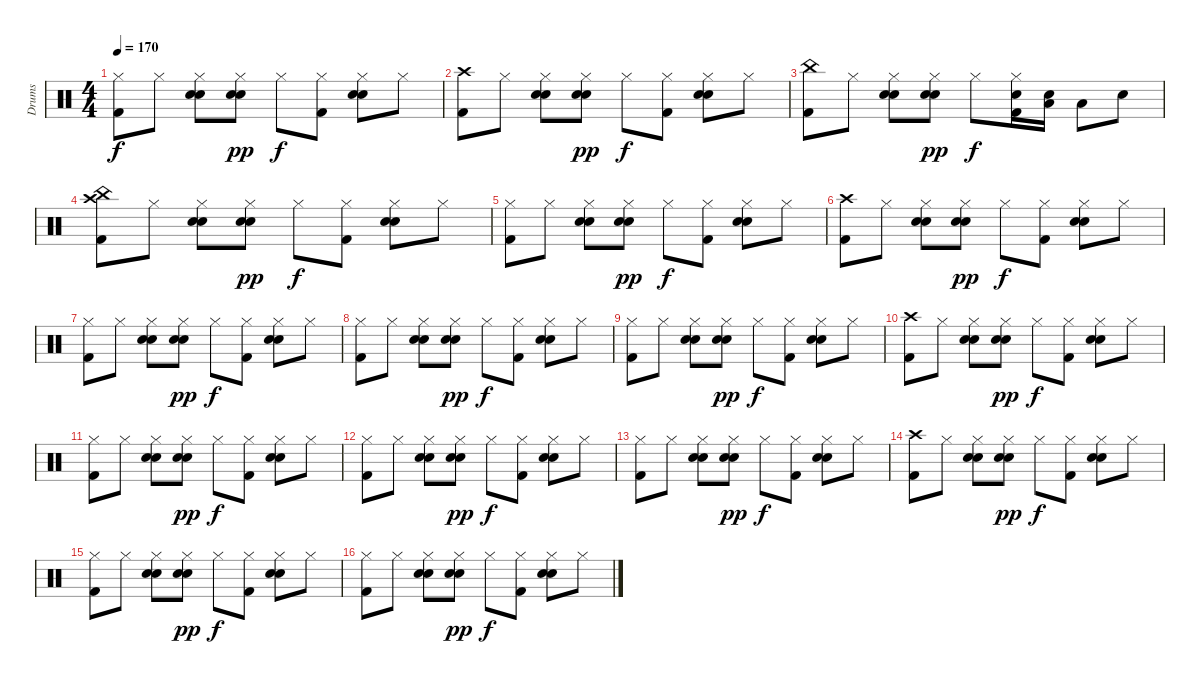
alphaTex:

\track ("Drums" "Drums") {instrument percussion}
\staff {score}
\articulation defaults
\ts (4 4)
\tempo 170
\clef neutral
\ks c
("Hi-Hat (closed)" "Kick (hit) 2").8{dy f} "Hi-Hat (closed)".8 ("Hi-Hat (closed)" "Electric Snare (hit)" "Snare (hit)").8 ("Hi-Hat (closed)" "Electric Snare (hit)" "Snare (hit)").8{dy pp} "Hi-Hat (closed)".8{dy f} ("Hi-Hat (closed)" "Kick (hit) 2").8 ("Hi-Hat (closed)" "Electric Snare (hit)" "Snare (hit)").8 "Hi-Hat (closed)".8 |
("Crash high (hit)" "Kick (hit) 2").8 "Hi-Hat (closed)".8 ("Hi-Hat (closed)" "Electric Snare (hit)" "Snare (hit)").8 ("Hi-Hat (closed)" "Electric Snare (hit)" "Snare (hit)").8{dy pp} "Hi-Hat (closed)".8{dy f} ("Hi-Hat (closed)" "Kick (hit) 2").8 ("Hi-Hat (closed)" "Electric Snare (hit)" "Snare (hit)").8 "Hi-Hat (closed)".8 |
("China (hit)" "Kick (hit) 2").8 "Hi-Hat (closed)".8 ("Hi-Hat (closed)" "Electric Snare (hit)" "Snare (hit)").8 ("Hi-Hat (closed)" "Electric Snare (hit)" "Snare (hit)").8{dy pp} "Hi-Hat (closed)".8{dy f} ("Hi-Hat (closed)" "Electric Snare (hit)" "Kick (hit) 2").16 ("Low Tom (hit)" "Electric Snare (hit)").16 "Low Tom (hit)".8 "Electric Snare (hit)".8 |
("China (hit)" "Crash high (hit)" "Kick (hit) 2").8 "Hi-Hat (closed)".8 ("Hi-Hat (closed)" "Electric Snare (hit)" "Snare (hit)").8 ("Hi-Hat (closed)" "Electric Snare (hit)" "Snare (hit)").8{dy pp} "Hi-Hat (closed)".8{dy f} ("Hi-Hat (closed)" "Kick (hit) 2").8 ("Hi-Hat (closed)" "Electric Snare (hit)" "Snare (hit)").8 "Hi-Hat (closed)".8 |
("Hi-Hat (closed)" "Kick (hit) 2").8 "Hi-Hat (closed)".8 ("Hi-Hat (closed)" "Electric Snare (hit)" "Snare (hit)").8 ("Hi-Hat (closed)" "Electric Snare (hit)" "Snare (hit)").8{dy pp} "Hi-Hat (closed)".8{dy f} ("Hi-Hat (closed)" "Kick (hit) 2").8 ("Hi-Hat (closed)" "Electric Snare (hit)" "Snare (hit)").8 "Hi-Hat (closed)".8 |
("Crash high (hit)" "Kick (hit) 2").8 "Hi-Hat (closed)".8 ("Hi-Hat (closed)" "Electric Snare (hit)" "Snare (hit)").8 ("Hi-Hat (closed)" "Electric Snare (hit)" "Snare (hit)").8{dy pp} "Hi-Hat (closed)".8{dy f} ("Hi-Hat (closed)" "Kick (hit) 2").8 ("Hi-Hat (closed)" "Electric Snare (hit)" "Snare (hit)").8 "Hi-Hat (closed)".8 |
("Hi-Hat (closed)" "Kick (hit) 2").8 "Hi-Hat (closed)".8 ("Hi-Hat (closed)" "Electric Snare (hit)" "Snare (hit)").8 ("Hi-Hat (closed)" "Electric Snare (hit)" "Snare (hit)").8{dy pp} "Hi-Hat (closed)".8{dy f} ("Hi-Hat (closed)" "Kick (hit) 2").8 ("Hi-Hat (closed)" "Electric Snare (hit)" "Snare (hit)").8 "Hi-Hat (closed)".8 |
("Hi-Hat (closed)" "Kick (hit) 2").8 "Hi-Hat (closed)".8 ("Hi-Hat (closed)" "Electric Snare (hit)" "Snare (hit)").8 ("Hi-Hat (closed)" "Electric Snare (hit)" "Snare (hit)").8{dy pp} "Hi-Hat (closed)".8{dy f} ("Hi-Hat (closed)" "Kick (hit) 2").8 ("Hi-Hat (closed)" "Electric Snare (hit)" "Snare (hit)").8 "Hi-Hat (closed)".8 |
("Hi-Hat (closed)" "Kick (hit) 2").8 "Hi-Hat (closed)".8 ("Hi-Hat (closed)" "Electric Snare (hit)" "Snare (hit)").8 ("Hi-Hat (closed)" "Electric Snare (hit)" "Snare (hit)").8{dy pp} "Hi-Hat (closed)".8{dy f} ("Hi-Hat (closed)" "Kick (hit) 2").8 ("Hi-Hat (closed)" "Electric Snare (hit)" "Snare (hit)").8 "Hi-Hat (closed)".8 |
("Crash high (hit)" "Kick (hit) 2").8 "Hi-Hat (closed)".8 ("Hi-Hat (closed)" "Electric Snare (hit)" "Snare (hit)").8 ("Hi-Hat (closed)" "Electric Snare (hit)" "Snare (hit)").8{dy pp} "Hi-Hat (closed)".8{dy f} ("Hi-Hat (closed)" "Kick (hit) 2").8 ("Hi-Hat (closed)" "Electric Snare (hit)" "Snare (hit)").8 "Hi-Hat (closed)".8 |
("Hi-Hat (closed)" "Kick (hit) 2").8 "Hi-Hat (closed)".8 ("Hi-Hat (closed)" "Electric Snare (hit)" "Snare (hit)").8 ("Hi-Hat (closed)" "Electric Snare (hit)" "Snare (hit)").8{dy pp} "Hi-Hat (closed)".8{dy f} ("Hi-Hat (closed)" "Kick (hit) 2").8 ("Hi-Hat (closed)" "Electric Snare (hit)" "Snare (hit)").8 "Hi-Hat (closed)".8 |
("Hi-Hat (closed)" "Kick (hit) 2").8 "Hi-Hat (closed)".8 ("Hi-Hat (closed)" "Electric Snare (hit)" "Snare (hit)").8 ("Hi-Hat (closed)" "Electric Snare (hit)" "Snare (hit)").8{dy pp} "Hi-Hat (closed)".8{dy f} ("Hi-Hat (closed)" "Kick (hit) 2").8 ("Hi-Hat (closed)" "Electric Snare (hit)" "Snare (hit)").8 "Hi-Hat (closed)".8 |
("Hi-Hat (closed)" "Kick (hit) 2").8 "Hi-Hat (closed)".8 ("Hi-Hat (closed)" "Electric Snare (hit)" "Snare (hit)").8 ("Hi-Hat (closed)" "Electric Snare (hit)" "Snare (hit)").8{dy pp} "Hi-Hat (closed)".8{dy f} ("Hi-Hat (closed)" "Kick (hit) 2").8 ("Hi-Hat (closed)" "Electric Snare (hit)" "Snare (hit)").8 "Hi-Hat (closed)".8 |
("Crash high (hit)" "Kick (hit) 2").8 "Hi-Hat (closed)".8 ("Hi-Hat (closed)" "Electric Snare (hit)" "Snare (hit)").8 ("Hi-Hat (closed)" "Electric Snare (hit)" "Snare (hit)").8{dy pp} "Hi-Hat (closed)".8{dy f} ("Hi-Hat (closed)" "Kick (hit) 2").8 ("Hi-Hat (closed)" "Electric Snare (hit)" "Snare (hit)").8 "Hi-Hat (closed)".8 |
("Hi-Hat (closed)" "Kick (hit) 2").8 "Hi-Hat (closed)".8 ("Hi-Hat (closed)" "Electric Snare (hit)" "Snare (hit)").8 ("Hi-Hat (closed)" "Electric Snare (hit)" "Snare (hit)").8{dy pp} "Hi-Hat (closed)".8{dy f} ("Hi-Hat (closed)" "Kick (hit) 2").8 ("Hi-Hat (closed)" "Electric Snare (hit)" "Snare (hit)").8 "Hi-Hat (closed)".8 |
("Hi-Hat (closed)" "Kick (hit) 2").8 "Hi-Hat (closed)".8 ("Hi-Hat (closed)" "Electric Snare (hit)" "Snare (hit)").8 ("Hi-Hat (closed)" "Electric Snare (hit)" "Snare (hit)").8{dy pp} "Hi-Hat (closed)".8{dy f} ("Hi-Hat (closed)" "Kick (hit) 2").8 ("Hi-Hat (closed)" "Electric Snare (hit)" "Snare (hit)").8 "Hi-Hat (closed)".8
